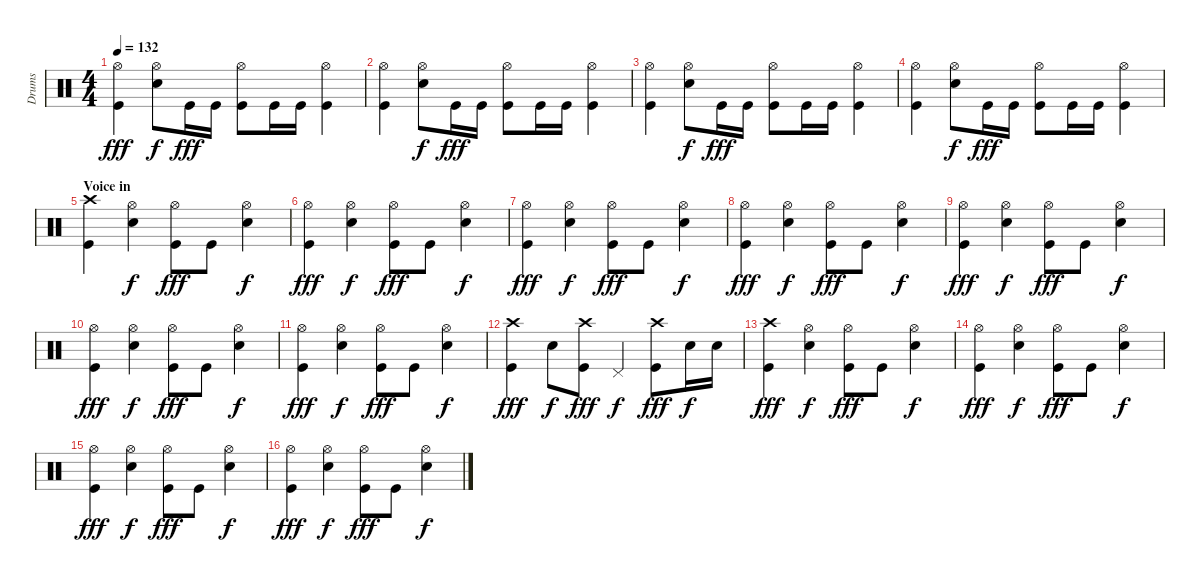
\track ("Drums" "Drums") {instrument percussion}
\staff {score}
\articulation defaults
\ts (4 4)
\tempo 132
\clef neutral
\ks c
("Hi-Hat (open)" "Kick (hit)").4{dy fff} ("Hi-Hat (open)" "Snare (hit) 2").8{dy f} "Kick (hit)".16{dy fff} "Kick (hit)".16 ("Hi-Hat (open)" "Kick (hit)").8 "Kick (hit)".16 "Kick (hit)".16 ("Hi-Hat (open)" "Kick (hit)").4 |
("Hi-Hat (open)" "Kick (hit)").4 ("Hi-Hat (open)" "Snare (hit) 2").8{dy f} "Kick (hit)".16{dy fff} "Kick (hit)".16 ("Hi-Hat (open)" "Kick (hit)").8 "Kick (hit)".16 "Kick (hit)".16 ("Hi-Hat (open)" "Kick (hit)").4 |
("Hi-Hat (open)" "Kick (hit)").4 ("Hi-Hat (open)" "Snare (hit) 2").8{dy f} "Kick (hit)".16{dy fff} "Kick (hit)".16 ("Hi-Hat (open)" "Kick (hit)").8 "Kick (hit)".16 "Kick (hit)".16 ("Hi-Hat (open)" "Kick (hit)").4 |
("Hi-Hat (open)" "Kick (hit)").4 ("Hi-Hat (open)" "Snare (hit) 2").8{dy f} "Kick (hit)".16{dy fff} "Kick (hit)".16 ("Hi-Hat (open)" "Kick (hit)").8 "Kick (hit)".16 "Kick (hit)".16 ("Hi-Hat (open)" "Kick (hit)").4 |
\section ("" "Voice in")
("Crash high (hit)" "Kick (hit)").4 ("Hi-Hat (open)" "Snare (hit) 2").4{dy f} ("Hi-Hat (open)" "Kick (hit)").8{dy fff} "Kick (hit)".8 ("Hi-Hat (open)" "Snare (hit) 2").4{dy f} |
("Hi-Hat (open)" "Kick (hit)").4{dy fff} ("Hi-Hat (open)" "Snare (hit) 2").4{dy f} ("Hi-Hat (open)" "Kick (hit)").8{dy fff} "Kick (hit)".8 ("Hi-Hat (open)" "Snare (hit) 2").4{dy f} |
("Hi-Hat (open)" "Kick (hit)").4{dy fff} ("Hi-Hat (open)" "Snare (hit) 2").4{dy f} ("Hi-Hat (open)" "Kick (hit)").8{dy fff} "Kick (hit)".8 ("Hi-Hat (open)" "Snare (hit) 2").4{dy f} |
("Hi-Hat (open)" "Kick (hit)").4{dy fff} ("Hi-Hat (open)" "Snare (hit) 2").4{dy f} ("Hi-Hat (open)" "Kick (hit)").8{dy fff} "Kick (hit)".8 ("Hi-Hat (open)" "Snare (hit) 2").4{dy f} |
("Hi-Hat (open)" "Kick (hit)").4{dy fff} ("Hi-Hat (open)" "Snare (hit) 2").4{dy f} ("Hi-Hat (open)" "Kick (hit)").8{dy fff} "Kick (hit)".8 ("Hi-Hat (open)" "Snare (hit) 2").4{dy f} |
("Hi-Hat (open)" "Kick (hit)").4{dy fff} ("Hi-Hat (open)" "Snare (hit) 2").4{dy f} ("Hi-Hat (open)" "Kick (hit)").8{dy fff} "Kick (hit)".8 ("Hi-Hat (open)" "Snare (hit) 2").4{dy f} |
("Hi-Hat (open)" "Kick (hit)").4{dy fff} ("Hi-Hat (open)" "Snare (hit) 2").4{dy f} ("Hi-Hat (open)" "Kick (hit)").8{dy fff} "Kick (hit)".8 ("Hi-Hat (open)" "Snare (hit) 2").4{dy f} |
("Crash high (hit)" "Kick (hit)").4{dy fff} "Snare (hit) 2".8{dy f} ("Crash high (hit)" "Kick (hit)").8{dy fff} "Pedal Hi-Hat (hit)".4{dy f} ("Crash high (hit)" "Kick (hit)").8{dy fff} "Snare (hit) 2".16{dy f} "Snare (hit) 2".16 |
("Crash high (hit)" "Kick (hit)").4{dy fff} ("Hi-Hat (open)" "Snare (hit) 2").4{dy f} ("Hi-Hat (open)" "Kick (hit)").8{dy fff} "Kick (hit)".8 ("Hi-Hat (open)" "Snare (hit) 2").4{dy f} |
("Hi-Hat (open)" "Kick (hit)").4{dy fff} ("Hi-Hat (open)" "Snare (hit) 2").4{dy f} ("Hi-Hat (open)" "Kick (hit)").8{dy fff} "Kick (hit)".8 ("Hi-Hat (open)" "Snare (hit) 2").4{dy f} |
("Hi-Hat (open)" "Kick (hit)").4{dy fff} ("Hi-Hat (open)" "Snare (hit) 2").4{dy f} ("Hi-Hat (open)" "Kick (hit)").8{dy fff} "Kick (hit)".8 ("Hi-Hat (open)" "Snare (hit) 2").4{dy f} |
("Hi-Hat (open)" "Kick (hit)").4{dy fff} ("Hi-Hat (open)" "Snare (hit) 2").4{dy f} ("Hi-Hat (open)" "Kick (hit)").8{dy fff} "Kick (hit)".8 ("Hi-Hat (open)" "Snare (hit) 2").4{dy f}
